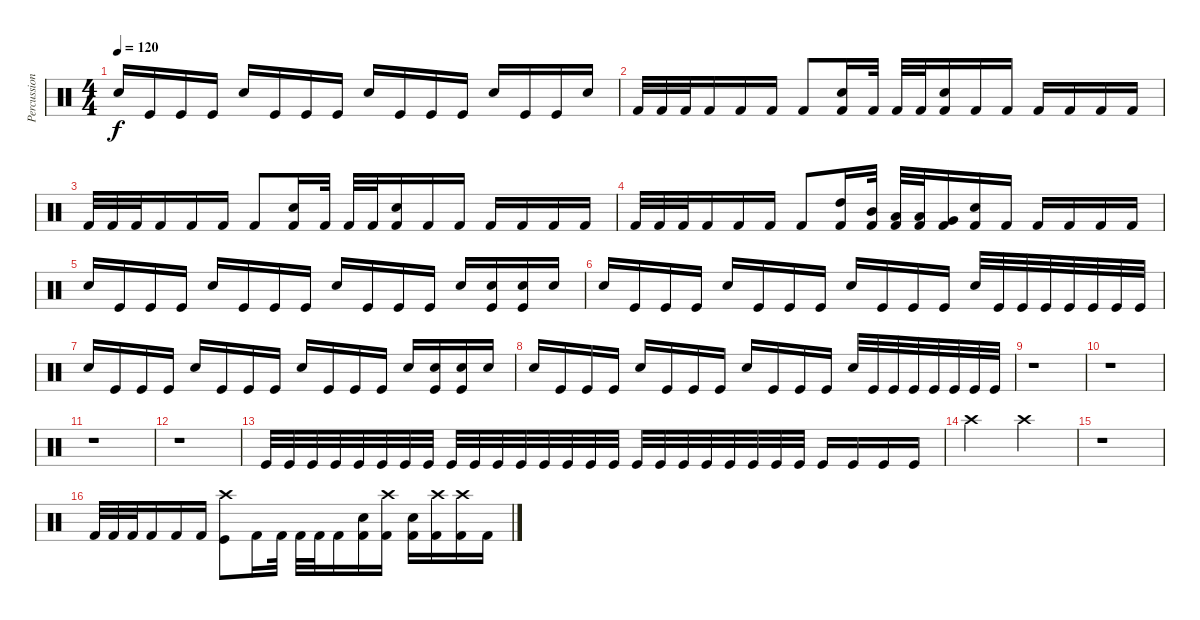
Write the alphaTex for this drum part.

\track ("Percussion" "Percussion") {instrument percussion}
\staff {score}
\articulation defaults
\ts (4 4)
\tempo 120
\clef neutral
\ks c "Snare (hit) 2".16{dy f} "Kick (hit)".16 "Kick (hit)".16 "Kick (hit)".16 "Snare (hit) 2".16 "Kick (hit)".16 "Kick (hit)".16 "Kick (hit)".16 "Snare (hit) 2".16 "Kick (hit)".16 "Kick (hit)".16 "Kick (hit)".16 "Snare (hit) 2".16 "Kick (hit)".16 "Kick (hit)".16 "Snare (hit) 2".16
|
"Kick (hit) 2".32 "Kick (hit) 2".32 "Kick (hit) 2".32 "Kick (hit) 2".16 "Kick (hit) 2".16 "Kick (hit) 2".16 "Kick (hit) 2".8 ("Kick (hit) 2" "Snare (hit) 2").16 "Kick (hit) 2".32 "Kick (hit) 2".32 "Kick (hit) 2".32 ("Kick (hit) 2" "Snare (hit) 2").16 "Kick (hit) 2".16 "Kick (hit) 2".16 "Kick (hit) 2".16 "Kick (hit) 2".16 "Kick (hit) 2".16 "Kick (hit) 2".16 |
"Kick (hit) 2".32 "Kick (hit) 2".32 "Kick (hit) 2".32 "Kick (hit) 2".16 "Kick (hit) 2".16 "Kick (hit) 2".16 "Kick (hit) 2".8 ("Kick (hit) 2" "Snare (hit) 2").16 "Kick (hit) 2".32 "Kick (hit) 2".32 "Kick (hit) 2".32 ("Kick (hit) 2" "Snare (hit) 2").16 "Kick (hit) 2".16 "Kick (hit) 2".16 "Kick (hit) 2".16 "Kick (hit) 2".16 "Kick (hit) 2".16 "Kick (hit) 2".16 |
"Kick (hit) 2".32 "Kick (hit) 2".32 "Kick (hit) 2".32 "Kick (hit) 2".16 "Kick (hit) 2".16 "Kick (hit) 2".16 "Kick (hit) 2".8 ("Kick (hit) 2" "High Tom (hit)").16 ("Kick (hit) 2" "Mid Tom (hit)").32 ("Kick (hit) 2" "Low Tom (hit)").32 ("Kick (hit) 2" "Low Tom (hit)").32 ("Kick (hit) 2" "Very Low Tom (hit)").16 ("Kick (hit) 2" "Snare (hit) 2").16 "Kick (hit) 2".16 "Kick (hit) 2".16 "Kick (hit) 2".16 "Kick (hit) 2".16 "Kick (hit) 2".16 |
"Snare (hit) 2".16 "Kick (hit)".16 "Kick (hit)".16 "Kick (hit)".16 "Snare (hit) 2".16 "Kick (hit)".16 "Kick (hit)".16 "Kick (hit)".16 "Snare (hit) 2".16 "Kick (hit)".16 "Kick (hit)".16 "Kick (hit)".16 "Snare (hit) 2".16 ("Kick (hit)" "Snare (hit) 2").16 ("Kick (hit)" "Snare (hit) 2").16 "Snare (hit) 2".16 |
"Snare (hit) 2".16 "Kick (hit)".16 "Kick (hit)".16 "Kick (hit)".16 "Snare (hit) 2".16 "Kick (hit)".16 "Kick (hit)".16 "Kick (hit)".16 "Snare (hit) 2".16 "Kick (hit)".16 "Kick (hit)".16 "Kick (hit)".16 "Snare (hit) 2".32 "Kick (hit)".32 "Kick (hit)".32 "Kick (hit)".32 "Kick (hit)".32 "Kick (hit)".32 "Kick (hit)".32 "Kick (hit)".32 |
"Snare (hit) 2".16 "Kick (hit)".16 "Kick (hit)".16 "Kick (hit)".16 "Snare (hit) 2".16 "Kick (hit)".16 "Kick (hit)".16 "Kick (hit)".16 "Snare (hit) 2".16 "Kick (hit)".16 "Kick (hit)".16 "Kick (hit)".16 "Snare (hit) 2".16 ("Kick (hit)" "Snare (hit) 2").16 ("Kick (hit)" "Snare (hit) 2").16 "Snare (hit) 2".16 |
"Snare (hit) 2".16 "Kick (hit)".16 "Kick (hit)".16 "Kick (hit)".16 "Snare (hit) 2".16 "Kick (hit)".16 "Kick (hit)".16 "Kick (hit)".16 "Snare (hit) 2".16 "Kick (hit)".16 "Kick (hit)".16 "Kick (hit)".16 "Snare (hit) 2".32 "Kick (hit)".32 "Kick (hit)".32 "Kick (hit)".32 "Kick (hit)".32 "Kick (hit)".32 "Kick (hit)".32 "Kick (hit)".32 |
r.1 |
r.1 |
r.1 |
r.1 |
"Kick (hit)".32 "Kick (hit)".32 "Kick (hit)".32 "Kick (hit)".32 "Kick (hit)".32 "Kick (hit)".32 "Kick (hit)".32 "Kick (hit)".32 "Kick (hit)".32 "Kick (hit)".32 "Kick (hit)".32 "Kick (hit)".32 "Kick (hit)".32 "Kick (hit)".32 "Kick (hit)".32 "Kick (hit)".32 "Kick (hit)".32 "Kick (hit)".32 "Kick (hit)".32 "Kick (hit)".32 "Kick (hit)".32 "Kick (hit)".32 "Kick (hit)".32 "Kick (hit)".32 "Kick (hit)".16 "Kick (hit)".16 "Kick (hit)".16 "Kick (hit)".16 |
"Crash high (hit)".2 "Crash high (hit)".2 |
r.1 |
"Kick (hit) 2".32 "Kick (hit) 2".32 "Kick (hit) 2".32 "Kick (hit) 2".16 "Kick (hit) 2".16 "Kick (hit) 2".16 ("Crash high (hit)" "Kick (hit)").8 "Kick (hit) 2".16 "Kick (hit) 2".32 "Kick (hit) 2".32 "Kick (hit) 2".32 "Kick (hit) 2".16 ("Kick (hit) 2" "Snare (hit) 2").16 ("Kick (hit) 2" "Crash high (hit)").16 ("Kick (hit) 2" "Snare (hit) 2").16 ("Kick (hit) 2" "Crash high (hit)").16 ("Kick (hit) 2" "Crash high (hit)").16 "Kick (hit) 2".16
